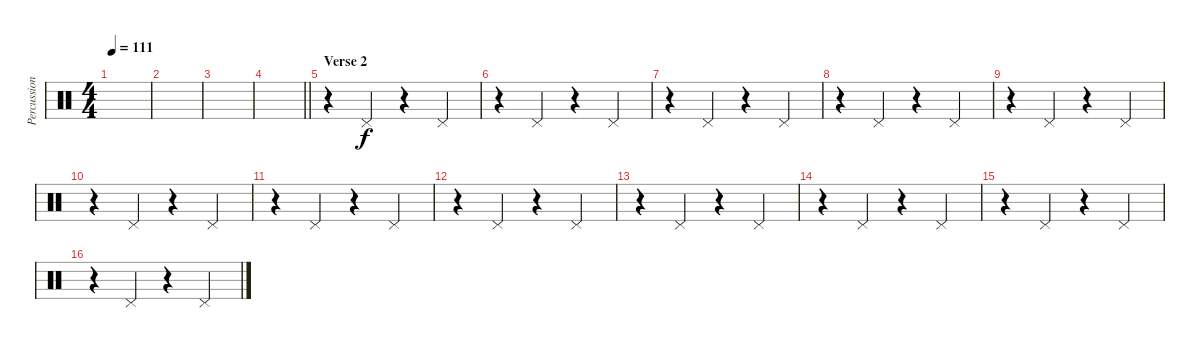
\track ("Percussion" "Percussion") {instrument percussion}
\staff {score}
\articulation defaults
\ts (4 4)
\tempo 111
\clef neutral
\ks c
|
|
|
\barLineRight lightlight
|
\section ("" "Verse 2")
r.4 "Pedal Hi-Hat (hit)".4 r.4 "Pedal Hi-Hat (hit)".4 |
r.4 "Pedal Hi-Hat (hit)".4 r.4 "Pedal Hi-Hat (hit)".4 |
r.4 "Pedal Hi-Hat (hit)".4 r.4 "Pedal Hi-Hat (hit)".4 |
r.4 "Pedal Hi-Hat (hit)".4 r.4 "Pedal Hi-Hat (hit)".4 |
r.4 "Pedal Hi-Hat (hit)".4 r.4 "Pedal Hi-Hat (hit)".4 |
r.4 "Pedal Hi-Hat (hit)".4 r.4 "Pedal Hi-Hat (hit)".4 |
r.4 "Pedal Hi-Hat (hit)".4 r.4 "Pedal Hi-Hat (hit)".4 |
r.4 "Pedal Hi-Hat (hit)".4 r.4 "Pedal Hi-Hat (hit)".4 |
r.4 "Pedal Hi-Hat (hit)".4 r.4 "Pedal Hi-Hat (hit)".4 |
r.4 "Pedal Hi-Hat (hit)".4 r.4 "Pedal Hi-Hat (hit)".4 |
r.4 "Pedal Hi-Hat (hit)".4 r.4 "Pedal Hi-Hat (hit)".4 |
r.4 "Pedal Hi-Hat (hit)".4 r.4 "Pedal Hi-Hat (hit)".4
